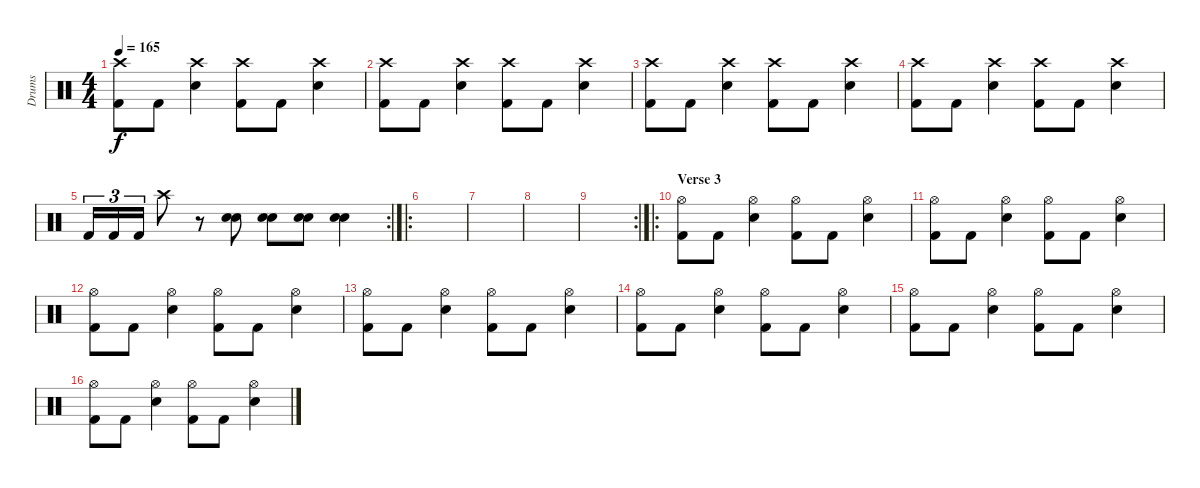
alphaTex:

\track ("Drums" "Drums") {instrument percussion}
\staff {score}
\articulation defaults
\ts (4 4)
\tempo 165
\clef neutral
\ks c
("Crash high (hit)" "Kick (hit) 2").8{dy f} "Kick (hit) 2".8 ("Crash high (hit)" "Snare (hit) 2").4 ("Crash high (hit)" "Kick (hit) 2").8 "Kick (hit) 2".8 ("Crash high (hit)" "Snare (hit) 2").4 |
("Crash high (hit)" "Kick (hit) 2").8 "Kick (hit) 2".8 ("Crash high (hit)" "Snare (hit) 2").4 ("Crash high (hit)" "Kick (hit) 2").8 "Kick (hit) 2".8 ("Crash high (hit)" "Snare (hit) 2").4 |
("Crash high (hit)" "Kick (hit) 2").8 "Kick (hit) 2".8 ("Crash high (hit)" "Snare (hit) 2").4 ("Crash high (hit)" "Kick (hit) 2").8 "Kick (hit) 2".8 ("Crash high (hit)" "Snare (hit) 2").4 |
("Crash high (hit)" "Kick (hit) 2").8 "Kick (hit) 2".8 ("Crash high (hit)" "Snare (hit) 2").4 ("Crash high (hit)" "Kick (hit) 2").8 "Kick (hit) 2".8 ("Crash high (hit)" "Snare (hit) 2").4 |
\rc 2 "Kick (hit) 2".16{tu (3 2)} "Kick (hit) 2".16{tu (3 2)} "Kick (hit) 2".16{tu (3 2)} "Crash high (hit)".8
r.8 ("Snare (hit) 2" "Snare (hit) 2").8 ("Snare (hit) 2" "Snare (hit) 2").8 ("Snare (hit) 2" "Snare (hit) 2").8 ("Snare (hit) 2" "Snare (hit) 2").4 |
\ro
|
|
|
\rc 2
|
\ro
\section ("" "Verse 3")
("Hi-Hat (open)" "Kick (hit) 2").8 "Kick (hit) 2".8 ("Hi-Hat (open)" "Snare (hit) 2").4 ("Hi-Hat (open)" "Kick (hit) 2").8 "Kick (hit) 2".8 ("Hi-Hat (open)" "Snare (hit) 2").4 |
("Hi-Hat (open)" "Kick (hit) 2").8 "Kick (hit) 2".8 ("Hi-Hat (open)" "Snare (hit) 2").4 ("Hi-Hat (open)" "Kick (hit) 2").8 "Kick (hit) 2".8 ("Hi-Hat (open)" "Snare (hit) 2").4 |
("Hi-Hat (open)" "Kick (hit) 2").8 "Kick (hit) 2".8 ("Hi-Hat (open)" "Snare (hit) 2").4 ("Hi-Hat (open)" "Kick (hit) 2").8 "Kick (hit) 2".8 ("Hi-Hat (open)" "Snare (hit) 2").4 |
("Hi-Hat (open)" "Kick (hit) 2").8 "Kick (hit) 2".8 ("Hi-Hat (open)" "Snare (hit) 2").4 ("Hi-Hat (open)" "Kick (hit) 2").8 "Kick (hit) 2".8 ("Hi-Hat (open)" "Snare (hit) 2").4 |
("Hi-Hat (open)" "Kick (hit) 2").8 "Kick (hit) 2".8 ("Hi-Hat (open)" "Snare (hit) 2").4 ("Hi-Hat (open)" "Kick (hit) 2").8 "Kick (hit) 2".8 ("Hi-Hat (open)" "Snare (hit) 2").4 |
("Hi-Hat (open)" "Kick (hit) 2").8 "Kick (hit) 2".8 ("Hi-Hat (open)" "Snare (hit) 2").4 ("Hi-Hat (open)" "Kick (hit) 2").8 "Kick (hit) 2".8 ("Hi-Hat (open)" "Snare (hit) 2").4 |
("Hi-Hat (open)" "Kick (hit) 2").8 "Kick (hit) 2".8 ("Hi-Hat (open)" "Snare (hit) 2").4 ("Hi-Hat (open)" "Kick (hit) 2").8 "Kick (hit) 2".8 ("Hi-Hat (open)" "Snare (hit) 2").4
